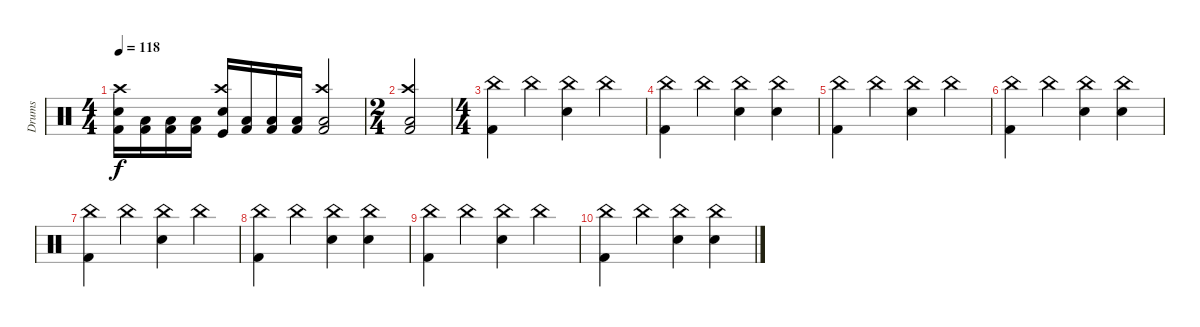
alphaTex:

\track ("Drums" "Drums") {instrument percussion}
\staff {score}
\articulation defaults
\ts (4 4)
\tempo 118
\clef neutral
\ks c
("Kick (hit) 2" "Snare (hit) 2" "Crash high (hit)").16{dy f} ("Kick (hit) 2" "Low Floor Tom (hit)").16 ("Kick (hit) 2" "Low Floor Tom (hit)").16 ("Kick (hit) 2" "Low Floor Tom (hit)").16 ("Kick (hit)" "Snare (hit) 2" "Crash high (hit)").16 ("Kick (hit) 2" "Low Floor Tom (hit)").16 ("Kick (hit) 2" "Low Floor Tom (hit)").16 ("Kick (hit) 2" "Low Floor Tom (hit)").16 ("Kick (hit) 2" "Low Floor Tom (hit)" "Crash high (hit)").2 |
\ts (2 4)
("Kick (hit) 2" "Low Floor Tom (hit)" "Crash high (hit)").2 |
\ts (4 4)
("Kick (hit) 2" "China (hit)").4 "China (hit)".4 ("Snare (hit) 2" "China (hit)").4 "China (hit)".4 |
("Kick (hit) 2" "China (hit)").4 "China (hit)".4 ("Snare (hit) 2" "China (hit)").4 ("Snare (hit) 2" "China (hit)").4 |
("Kick (hit) 2" "China (hit)").4 "China (hit)".4 ("Snare (hit) 2" "China (hit)").4 "China (hit)".4 |
("Kick (hit) 2" "China (hit)").4 "China (hit)".4 ("Snare (hit) 2" "China (hit)").4 ("Snare (hit) 2" "China (hit)").4 |
("Kick (hit) 2" "China (hit)").4 "China (hit)".4 ("Snare (hit) 2" "China (hit)").4 "China (hit)".4 |
("Kick (hit) 2" "China (hit)").4 "China (hit)".4 ("Snare (hit) 2" "China (hit)").4 ("Snare (hit) 2" "China (hit)").4 |
("Kick (hit) 2" "China (hit)").4 "China (hit)".4 ("Snare (hit) 2" "China (hit)").4 "China (hit)".4 |
("Kick (hit) 2" "China (hit)").4 "China (hit)".4 ("Snare (hit) 2" "China (hit)").4 ("Snare (hit) 2" "China (hit)").4
